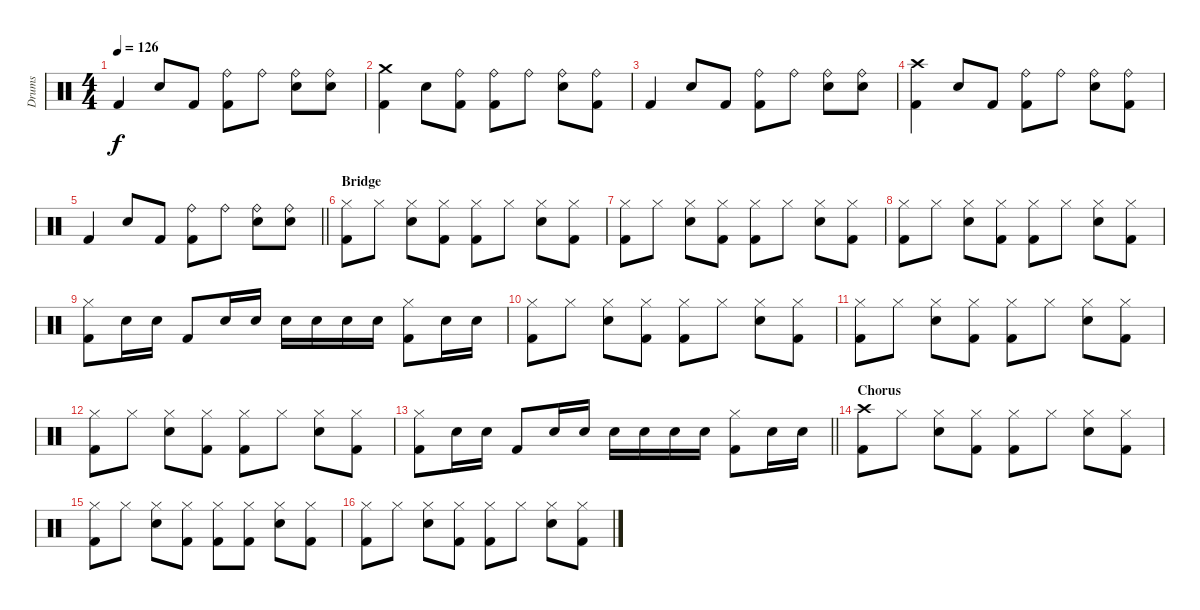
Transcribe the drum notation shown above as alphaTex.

\track ("Drums" "Drums") {instrument percussion}
\staff {score}
\articulation defaults
\ts (4 4)
\tempo 126
\clef neutral
\ks c "Kick (hit) 2".4{dy f} "Snare (hit) 2".8 "Kick (hit) 2".8
("Ride (bell)" "Kick (hit) 2").8 "Ride (bell)".8 ("Ride (bell)" "Snare (hit) 2").8 ("Ride (bell)" "Snare (hit) 2").8 |
("Crash medium (hit)" "Kick (hit) 2").4 "Snare (hit) 2".8 ("Ride (bell)" "Kick (hit) 2").8 ("Ride (bell)" "Kick (hit) 2").8 "Ride (bell)".8 ("Ride (bell)" "Snare (hit) 2").8 ("Ride (bell)" "Kick (hit) 2").8 |
"Kick (hit) 2".4 "Snare (hit) 2".8 "Kick (hit) 2".8 ("Ride (bell)" "Kick (hit) 2").8 "Ride (bell)".8 ("Ride (bell)" "Snare (hit) 2").8 ("Ride (bell)" "Snare (hit) 2").8 |
("Crash high (hit)" "Kick (hit) 2").4 "Snare (hit) 2".8 "Kick (hit) 2".8 ("Ride (bell)" "Kick (hit) 2").8 "Ride (bell)".8 ("Ride (bell)" "Snare (hit) 2").8 ("Ride (bell)" "Kick (hit) 2").8 |
\barLineRight lightlight "Kick (hit) 2".4 "Snare (hit) 2".8 "Kick (hit) 2".8
("Ride (bell)" "Kick (hit) 2").8 "Ride (bell)".8 ("Ride (bell)" "Snare (hit) 2").8 ("Ride (bell)" "Snare (hit) 2").8 |
\section ("" "Bridge")
("Hi-Hat (closed)" "Kick (hit) 2").8 "Hi-Hat (closed)".8 ("Hi-Hat (closed)" "Snare (hit) 2").8 ("Hi-Hat (closed)" "Kick (hit) 2").8 ("Hi-Hat (closed)" "Kick (hit) 2").8 "Hi-Hat (closed)".8 ("Hi-Hat (closed)" "Snare (hit) 2").8 ("Hi-Hat (closed)" "Kick (hit) 2").8 |
("Hi-Hat (closed)" "Kick (hit) 2").8 "Hi-Hat (closed)".8 ("Hi-Hat (closed)" "Snare (hit) 2").8 ("Hi-Hat (closed)" "Kick (hit) 2").8 ("Hi-Hat (closed)" "Kick (hit) 2").8 "Hi-Hat (closed)".8 ("Hi-Hat (closed)" "Snare (hit) 2").8 ("Hi-Hat (closed)" "Kick (hit) 2").8 |
("Hi-Hat (closed)" "Kick (hit) 2").8 "Hi-Hat (closed)".8 ("Hi-Hat (closed)" "Snare (hit) 2").8 ("Hi-Hat (closed)" "Kick (hit) 2").8 ("Hi-Hat (closed)" "Kick (hit) 2").8 "Hi-Hat (closed)".8 ("Hi-Hat (closed)" "Snare (hit) 2").8 ("Hi-Hat (closed)" "Kick (hit) 2").8 |
("Hi-Hat (closed)" "Kick (hit) 2").8 "Snare (hit) 2".16 "Snare (hit) 2".16 "Kick (hit) 2".8 "Snare (hit) 2".16 "Snare (hit) 2".16 "Snare (hit) 2".16 "Snare (hit) 2".16 "Snare (hit) 2".16 "Snare (hit) 2".16 ("Hi-Hat (closed)" "Kick (hit) 2").8 "Snare (hit) 2".16 "Snare (hit) 2".16 |
("Hi-Hat (closed)" "Kick (hit) 2").8 "Hi-Hat (closed)".8 ("Hi-Hat (closed)" "Snare (hit) 2").8 ("Hi-Hat (closed)" "Kick (hit) 2").8 ("Hi-Hat (closed)" "Kick (hit) 2").8 "Hi-Hat (closed)".8 ("Hi-Hat (closed)" "Snare (hit) 2").8 ("Hi-Hat (closed)" "Kick (hit) 2").8 |
("Hi-Hat (closed)" "Kick (hit) 2").8 "Hi-Hat (closed)".8 ("Hi-Hat (closed)" "Snare (hit) 2").8 ("Hi-Hat (closed)" "Kick (hit) 2").8 ("Hi-Hat (closed)" "Kick (hit) 2").8 "Hi-Hat (closed)".8 ("Hi-Hat (closed)" "Snare (hit) 2").8 ("Hi-Hat (closed)" "Kick (hit) 2").8 |
("Hi-Hat (closed)" "Kick (hit) 2").8 "Hi-Hat (closed)".8 ("Hi-Hat (closed)" "Snare (hit) 2").8 ("Hi-Hat (closed)" "Kick (hit) 2").8 ("Hi-Hat (closed)" "Kick (hit) 2").8 "Hi-Hat (closed)".8 ("Hi-Hat (closed)" "Snare (hit) 2").8 ("Hi-Hat (closed)" "Kick (hit) 2").8 |
\barLineRight lightlight
("Hi-Hat (closed)" "Kick (hit) 2").8 "Snare (hit) 2".16 "Snare (hit) 2".16 "Kick (hit) 2".8 "Snare (hit) 2".16 "Snare (hit) 2".16 "Snare (hit) 2".16 "Snare (hit) 2".16 "Snare (hit) 2".16 "Snare (hit) 2".16 ("Hi-Hat (closed)" "Kick (hit) 2").8 "Snare (hit) 2".16 "Snare (hit) 2".16 |
\section ("" "Chorus")
("Crash high (hit)" "Kick (hit) 2").8 "Hi-Hat (closed)".8 ("Hi-Hat (closed)" "Snare (hit) 2").8 ("Hi-Hat (closed)" "Kick (hit) 2").8 ("Hi-Hat (closed)" "Kick (hit) 2").8 "Hi-Hat (closed)".8 ("Hi-Hat (closed)" "Snare (hit) 2").8 ("Hi-Hat (closed)" "Kick (hit) 2").8 |
("Hi-Hat (closed)" "Kick (hit) 2").8 "Hi-Hat (closed)".8 ("Hi-Hat (closed)" "Snare (hit) 2").8 ("Hi-Hat (closed)" "Kick (hit) 2").8 ("Hi-Hat (closed)" "Kick (hit) 2").8 ("Hi-Hat (closed)" "Kick (hit) 2").8 ("Hi-Hat (closed)" "Snare (hit) 2").8 ("Hi-Hat (closed)" "Kick (hit) 2").8 |
("Hi-Hat (closed)" "Kick (hit) 2").8 "Hi-Hat (closed)".8 ("Hi-Hat (closed)" "Snare (hit) 2").8 ("Hi-Hat (closed)" "Kick (hit) 2").8 ("Hi-Hat (closed)" "Kick (hit) 2").8 "Hi-Hat (closed)".8 ("Hi-Hat (closed)" "Snare (hit) 2").8 ("Hi-Hat (closed)" "Kick (hit) 2").8
